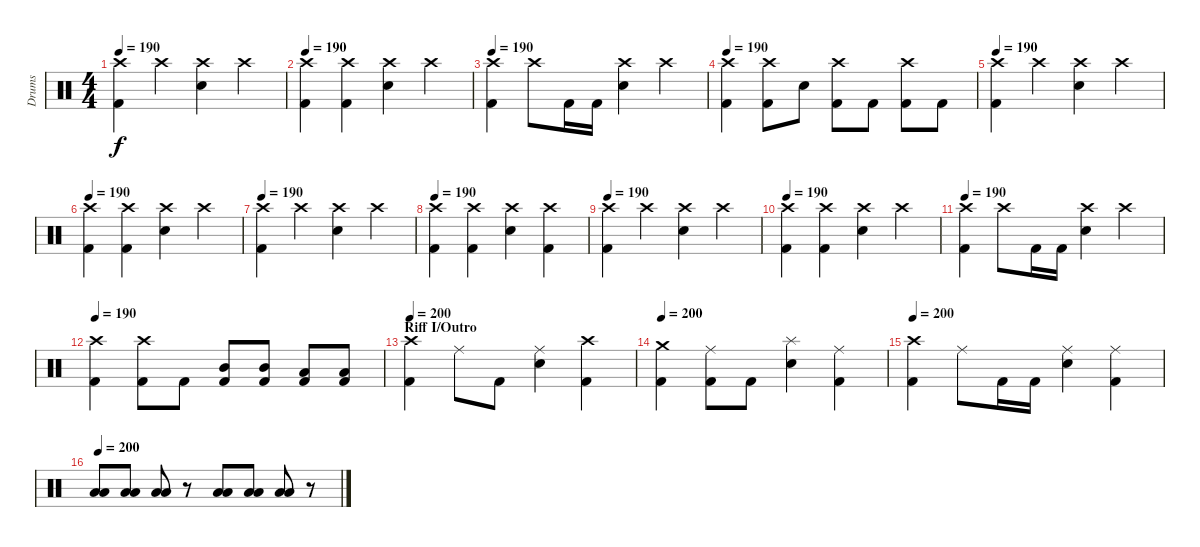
\track ("Drums" "Drums") {instrument percussion}
\staff {score}
\articulation defaults
\ts (4 4)
\tempo 190
\clef neutral
\ks c
("Crash high (hit)" "Kick (hit) 2").4{dy f} "Crash high (hit)".4 ("Crash high (hit)" "Electric Snare (hit)").4 "Crash high (hit)".4 |
\tempo 190
("Crash high (hit)" "Kick (hit) 2").4 ("Crash high (hit)" "Kick (hit) 2").4 ("Crash high (hit)" "Electric Snare (hit)").4 "Crash high (hit)".4 |
\tempo 190
("Crash high (hit)" "Kick (hit) 2").4 "Crash high (hit)".8 "Kick (hit) 2".16 "Kick (hit) 2".16 ("Crash high (hit)" "Electric Snare (hit)").4 "Crash high (hit)".4 |
\tempo 190
("Crash high (hit)" "Kick (hit) 2").4 ("Crash high (hit)" "Kick (hit) 2").8 "Electric Snare (hit)".8 ("Crash high (hit)" "Kick (hit) 2").8 "Kick (hit) 2".8 ("Crash high (hit)" "Kick (hit) 2").8 "Kick (hit) 2".8 |
\tempo 190
("Crash high (hit)" "Kick (hit) 2").4 "Crash high (hit)".4 ("Crash high (hit)" "Electric Snare (hit)").4 "Crash high (hit)".4 |
\tempo 190
("Crash high (hit)" "Kick (hit) 2").4 ("Crash high (hit)" "Kick (hit) 2").4 ("Crash high (hit)" "Electric Snare (hit)").4 "Crash high (hit)".4 |
\tempo 190
("Crash high (hit)" "Kick (hit) 2").4 "Crash high (hit)".4 ("Crash high (hit)" "Electric Snare (hit)").4 "Crash high (hit)".4 |
\tempo 190
("Crash high (hit)" "Kick (hit) 2").4 ("Crash high (hit)" "Kick (hit) 2").4 ("Crash high (hit)" "Electric Snare (hit)").4 ("Crash high (hit)" "Kick (hit) 2").4 |
\tempo 190
("Crash high (hit)" "Kick (hit) 2").4 "Crash high (hit)".4 ("Crash high (hit)" "Electric Snare (hit)").4 "Crash high (hit)".4 |
\tempo 190
("Crash high (hit)" "Kick (hit) 2").4 ("Crash high (hit)" "Kick (hit) 2").4 ("Crash high (hit)" "Electric Snare (hit)").4 "Crash high (hit)".4 |
\tempo 190
("Crash high (hit)" "Kick (hit) 2").4 "Crash high (hit)".8 "Kick (hit) 2".16 "Kick (hit) 2".16 ("Crash high (hit)" "Electric Snare (hit)").4 "Crash high (hit)".4 |
\tempo 190
("Crash high (hit)" "Kick (hit) 2").4 ("Crash high (hit)" "Kick (hit) 2").8 "Kick (hit) 2".8 ("Mid Tom (hit)" "Kick (hit) 2").8 ("Mid Tom (hit)" "Kick (hit) 2").8 ("Low Tom (hit)" "Kick (hit) 2").8 ("Low Tom (hit)" "Kick (hit) 2").8 |
\section ("" "Riff I/Outro")
\tempo 200
("Crash high (hit)" "Kick (hit) 2").4 "Ride (middle)".8 "Kick (hit) 2".8 ("Ride (middle)" "Electric Snare (hit)").4 ("Crash high (hit)" "Kick (hit) 2").4 |
\tempo 200
("Crash medium (hit)" "Kick (hit) 2").4 ("Ride (middle)" "Kick (hit) 2").8 "Kick (hit) 2".8 ("Splash (hit)" "Electric Snare (hit)").4 ("Ride (middle)" "Kick (hit) 2").4 |
\tempo 200
("Crash high (hit)" "Kick (hit) 2").4 "Ride (middle)".8 "Kick (hit) 2".16 "Kick (hit) 2".16 ("Ride (middle)" "Electric Snare (hit)").4 ("Ride (middle)" "Kick (hit) 2").4 |
\tempo 200
("Low Tom (hit)" "Low Tom (hit)").8 ("Low Tom (hit)" "Low Tom (hit)").8 ("Low Tom (hit)" "Low Tom (hit)").8 r.8 ("Low Tom (hit)" "Low Tom (hit)").8 ("Low Tom (hit)" "Low Tom (hit)").8 ("Low Tom (hit)" "Low Tom (hit)").8 r.8
